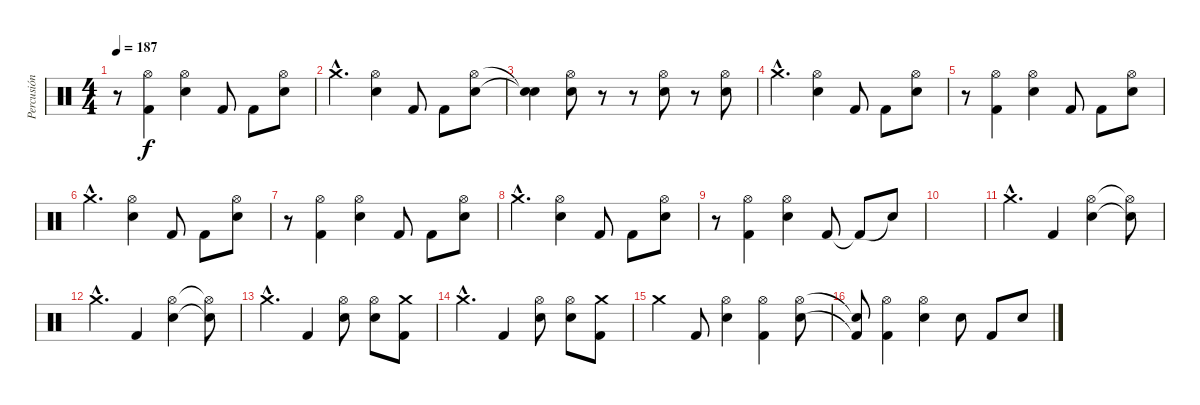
\track ("Percusión" "Percusión") {instrument percussion}
\staff {score}
\articulation defaults
\ts (4 4)
\tempo 187
\clef neutral
\ks c
r.8{dy f} ("Hi-Hat (open)" "Kick (hit) 2").4 ("Hi-Hat (open)" "Snare (hit) 2").4 "Kick (hit) 2".8 "Kick (hit) 2".8 ("Hi-Hat (open)" "Snare (hit) 2").8 |
"Crash medium (hit)"{hac}.4{d} ("Hi-Hat (open)" "Snare (hit) 2").4 "Kick (hit) 2".8 "Kick (hit) 2".8 ("Hi-Hat (open)" "Snare (hit) 2").8 |
("Snare (hit)"{t} "Snare (hit)"{t}).4 ("Hi-Hat (open)" "Snare (hit) 2").8 r.8 r.8 ("Hi-Hat (open)" "Snare (hit) 2").8 r.8 ("Hi-Hat (open)" "Snare (hit) 2").8 |
"Crash medium (hit)"{hac}.4{d} ("Hi-Hat (open)" "Snare (hit) 2").4 "Kick (hit) 2".8 "Kick (hit) 2".8 ("Hi-Hat (open)" "Snare (hit) 2").8 |
r.8 ("Hi-Hat (open)" "Kick (hit) 2").4 ("Hi-Hat (open)" "Snare (hit) 2").4 "Kick (hit) 2".8 "Kick (hit) 2".8 ("Hi-Hat (open)" "Snare (hit) 2").8 |
"Crash medium (hit)"{hac}.4{d} ("Hi-Hat (open)" "Snare (hit) 2").4 "Kick (hit) 2".8 "Kick (hit) 2".8 ("Hi-Hat (open)" "Snare (hit) 2").8 |
r.8 ("Hi-Hat (open)" "Kick (hit) 2").4 ("Hi-Hat (open)" "Snare (hit) 2").4 "Kick (hit) 2".8 "Kick (hit) 2".8 ("Hi-Hat (open)" "Snare (hit) 2").8 |
"Crash medium (hit)"{hac}.4{d} ("Hi-Hat (open)" "Snare (hit) 2").4 "Kick (hit) 2".8 "Kick (hit) 2".8 ("Hi-Hat (open)" "Snare (hit) 2").8 |
r.8 ("Hi-Hat (open)" "Kick (hit) 2").4 ("Hi-Hat (open)" "Snare (hit) 2").4 "Kick (hit) 2".8 "Kick (hit) 2"{t}.8 "Snare (hit) 2"{t}.8 |
|
"Crash medium (hit)"{hac}.4{d} "Kick (hit) 2".4 ("Hi-Hat (open)" "Snare (hit) 2").4 ("Hi-Hat (open)"{t} "Snare (hit) 2"{t}).8 |
"Crash medium (hit)"{hac}.4{d} "Kick (hit) 2".4 ("Hi-Hat (open)" "Snare (hit) 2").4 ("Hi-Hat (open)"{t} "Snare (hit) 2"{t}).8 |
"Crash medium (hit)"{hac}.4{d} "Kick (hit) 2".4 ("Hi-Hat (open)" "Snare (hit) 2").8 ("Hi-Hat (open)" "Snare (hit) 2").8 ("Crash medium (hit)" "Kick (hit) 2").8 |
"Crash medium (hit)"{hac}.4{d} "Kick (hit) 2".4 ("Hi-Hat (open)" "Snare (hit) 2").8 ("Hi-Hat (open)" "Snare (hit) 2").8 ("Crash medium (hit)" "Kick (hit) 2").8 |
"Crash medium (hit)".4 "Kick (hit) 2".8 ("Hi-Hat (open)" "Snare (hit) 2").4 ("Hi-Hat (open)" "Kick (hit) 2").4 ("Hi-Hat (open)" "Snare (hit) 2").8 |
("Snare (hit)"{t} "Kick (hit) 2"{t}).8 ("Hi-Hat (open)" "Kick (hit) 2").4 ("Hi-Hat (open)" "Snare (hit) 2").4 "Snare (hit) 2".8 "Kick (hit) 2".8 "Snare (hit) 2".8
